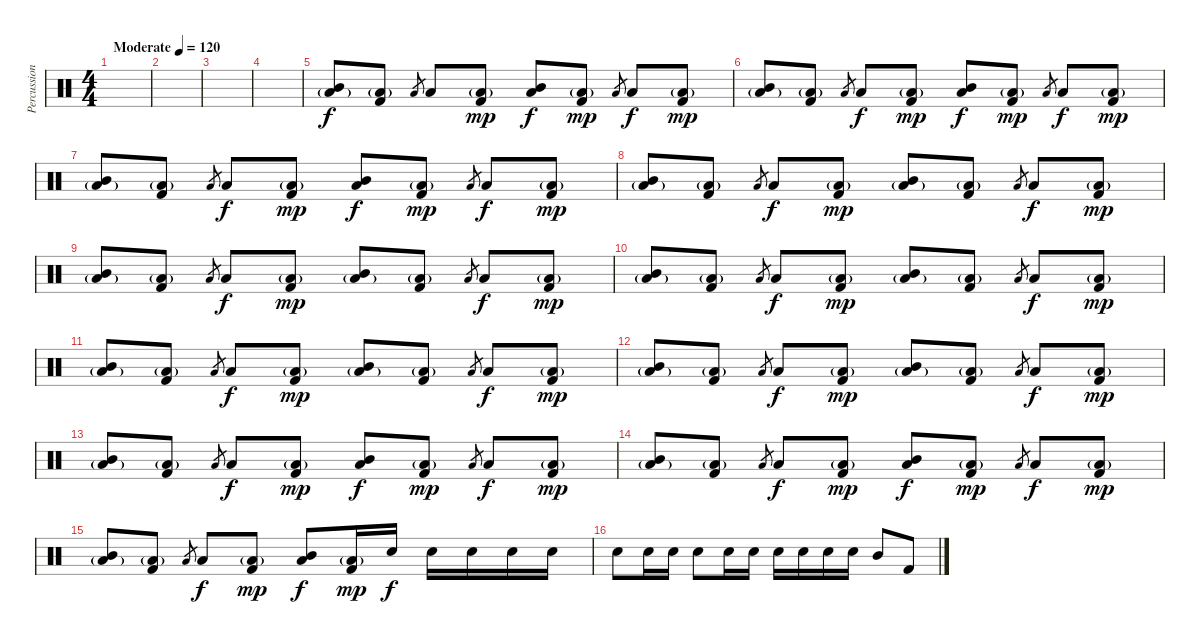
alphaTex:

\track ("Percussion" "Percussion") {instrument percussion}
\staff {score}
\articulation defaults
\ts (4 4)
\tempo (120 "Moderate")
\clef neutral
\ks c
|
|
|
|
("Mid Tom (hit)" "Low Floor Tom (hit)"{g}).8 ("Low Floor Tom (hit)"{g} "Kick (hit) 2").8 "Low Floor Tom (hit)".8{gr} "Low Floor Tom (hit)".8{dy f} ("Low Floor Tom (hit)"{g} "Kick (hit) 2").8{dy mp} ("Mid Tom (hit)" "Low Floor Tom (hit)").8{dy f} ("Low Floor Tom (hit)"{g} "Kick (hit) 2").8{dy mp} "Low Floor Tom (hit)".8{gr} "Low Floor Tom (hit)".8{dy f} ("Low Floor Tom (hit)"{g} "Kick (hit) 2").8{dy mp} |
("Mid Tom (hit)" "Low Floor Tom (hit)"{g}).8 ("Low Floor Tom (hit)"{g} "Kick (hit) 2").8 "Low Floor Tom (hit)".8{gr} "Low Floor Tom (hit)".8{dy f} ("Low Floor Tom (hit)"{g} "Kick (hit) 2").8{dy mp} ("Mid Tom (hit)" "Low Floor Tom (hit)").8{dy f} ("Low Floor Tom (hit)"{g} "Kick (hit) 2").8{dy mp} "Low Floor Tom (hit)".8{gr} "Low Floor Tom (hit)".8{dy f} ("Low Floor Tom (hit)"{g} "Kick (hit) 2").8{dy mp} |
("Mid Tom (hit)" "Low Floor Tom (hit)"{g}).8 ("Low Floor Tom (hit)"{g} "Kick (hit) 2").8 "Low Floor Tom (hit)".8{gr} "Low Floor Tom (hit)".8{dy f} ("Low Floor Tom (hit)"{g} "Kick (hit) 2").8{dy mp} ("Mid Tom (hit)" "Low Floor Tom (hit)").8{dy f} ("Low Floor Tom (hit)"{g} "Kick (hit) 2").8{dy mp} "Low Floor Tom (hit)".8{gr} "Low Floor Tom (hit)".8{dy f} ("Low Floor Tom (hit)"{g} "Kick (hit) 2").8{dy mp} |
("Mid Tom (hit)" "Low Floor Tom (hit)"{g}).8 ("Low Floor Tom (hit)"{g} "Kick (hit) 2").8 "Low Floor Tom (hit)".8{gr} "Low Floor Tom (hit)".8{dy f} ("Low Floor Tom (hit)"{g} "Kick (hit) 2").8{dy mp} ("Mid Tom (hit)" "Low Floor Tom (hit)"{g}).8 ("Low Floor Tom (hit)"{g} "Kick (hit) 2").8 "Low Floor Tom (hit)".8{gr} "Low Floor Tom (hit)".8{dy f} ("Low Floor Tom (hit)"{g} "Kick (hit) 2").8{dy mp} |
("Mid Tom (hit)" "Low Floor Tom (hit)"{g}).8 ("Low Floor Tom (hit)"{g} "Kick (hit) 2").8 "Low Floor Tom (hit)".8{gr} "Low Floor Tom (hit)".8{dy f} ("Low Floor Tom (hit)"{g} "Kick (hit) 2").8{dy mp} ("Mid Tom (hit)" "Low Floor Tom (hit)"{g}).8 ("Low Floor Tom (hit)"{g} "Kick (hit) 2").8 "Low Floor Tom (hit)".8{gr} "Low Floor Tom (hit)".8{dy f} ("Low Floor Tom (hit)"{g} "Kick (hit) 2").8{dy mp} |
("Mid Tom (hit)" "Low Floor Tom (hit)"{g}).8 ("Low Floor Tom (hit)"{g} "Kick (hit) 2").8 "Low Floor Tom (hit)".8{gr} "Low Floor Tom (hit)".8{dy f} ("Low Floor Tom (hit)"{g} "Kick (hit) 2").8{dy mp} ("Mid Tom (hit)" "Low Floor Tom (hit)"{g}).8 ("Low Floor Tom (hit)"{g} "Kick (hit) 2").8 "Low Floor Tom (hit)".8{gr} "Low Floor Tom (hit)".8{dy f} ("Low Floor Tom (hit)"{g} "Kick (hit) 2").8{dy mp} |
("Mid Tom (hit)" "Low Floor Tom (hit)"{g}).8 ("Low Floor Tom (hit)"{g} "Kick (hit) 2").8 "Low Floor Tom (hit)".8{gr} "Low Floor Tom (hit)".8{dy f} ("Low Floor Tom (hit)"{g} "Kick (hit) 2").8{dy mp} ("Mid Tom (hit)" "Low Floor Tom (hit)"{g}).8 ("Low Floor Tom (hit)"{g} "Kick (hit) 2").8 "Low Floor Tom (hit)".8{gr} "Low Floor Tom (hit)".8{dy f} ("Low Floor Tom (hit)"{g} "Kick (hit) 2").8{dy mp} |
("Mid Tom (hit)" "Low Floor Tom (hit)"{g}).8 ("Low Floor Tom (hit)"{g} "Kick (hit) 2").8 "Low Floor Tom (hit)".8{gr} "Low Floor Tom (hit)".8{dy f} ("Low Floor Tom (hit)"{g} "Kick (hit) 2").8{dy mp} ("Mid Tom (hit)" "Low Floor Tom (hit)"{g}).8 ("Low Floor Tom (hit)"{g} "Kick (hit) 2").8 "Low Floor Tom (hit)".8{gr} "Low Floor Tom (hit)".8{dy f} ("Low Floor Tom (hit)"{g} "Kick (hit) 2").8{dy mp} |
("Mid Tom (hit)" "Low Floor Tom (hit)"{g}).8 ("Low Floor Tom (hit)"{g} "Kick (hit) 2").8 "Low Floor Tom (hit)".8{gr} "Low Floor Tom (hit)".8{dy f} ("Low Floor Tom (hit)"{g} "Kick (hit) 2").8{dy mp} ("Mid Tom (hit)" "Low Floor Tom (hit)").8{dy f} ("Low Floor Tom (hit)"{g} "Kick (hit) 2").8{dy mp} "Low Floor Tom (hit)".8{gr} "Low Floor Tom (hit)".8{dy f} ("Low Floor Tom (hit)"{g} "Kick (hit) 2").8{dy mp} |
("Mid Tom (hit)" "Low Floor Tom (hit)"{g}).8 ("Low Floor Tom (hit)"{g} "Kick (hit) 2").8 "Low Floor Tom (hit)".8{gr} "Low Floor Tom (hit)".8{dy f} ("Low Floor Tom (hit)"{g} "Kick (hit) 2").8{dy mp} ("Mid Tom (hit)" "Low Floor Tom (hit)").8{dy f} ("Low Floor Tom (hit)"{g} "Kick (hit) 2").8{dy mp} "Low Floor Tom (hit)".8{gr} "Low Floor Tom (hit)".8{dy f} ("Low Floor Tom (hit)"{g} "Kick (hit) 2").8{dy mp} |
("Mid Tom (hit)" "Low Floor Tom (hit)"{g}).8 ("Low Floor Tom (hit)"{g} "Kick (hit) 2").8 "Low Floor Tom (hit)".8{gr} "Low Floor Tom (hit)".8{dy f} ("Low Floor Tom (hit)"{g} "Kick (hit) 2").8{dy mp} ("Mid Tom (hit)" "Low Floor Tom (hit)").8{dy f} ("Low Floor Tom (hit)"{g} "Kick (hit) 2").16{dy mp} "Snare (hit) 2".16{dy f} "Snare (hit) 2".16 "Snare (hit) 2".16 "Snare (hit) 2".16 "Snare (hit) 2".16 |
"Snare (hit) 2".8 "Snare (hit) 2".16 "Snare (hit) 2".16 "Snare (hit) 2".8 "Snare (hit) 2".16 "Snare (hit) 2".16 "Snare (hit) 2".16 "Snare (hit) 2".16 "Snare (hit) 2".16 "Snare (hit) 2".16 "Mid Tom (hit)".8 "Kick (hit) 2".8
